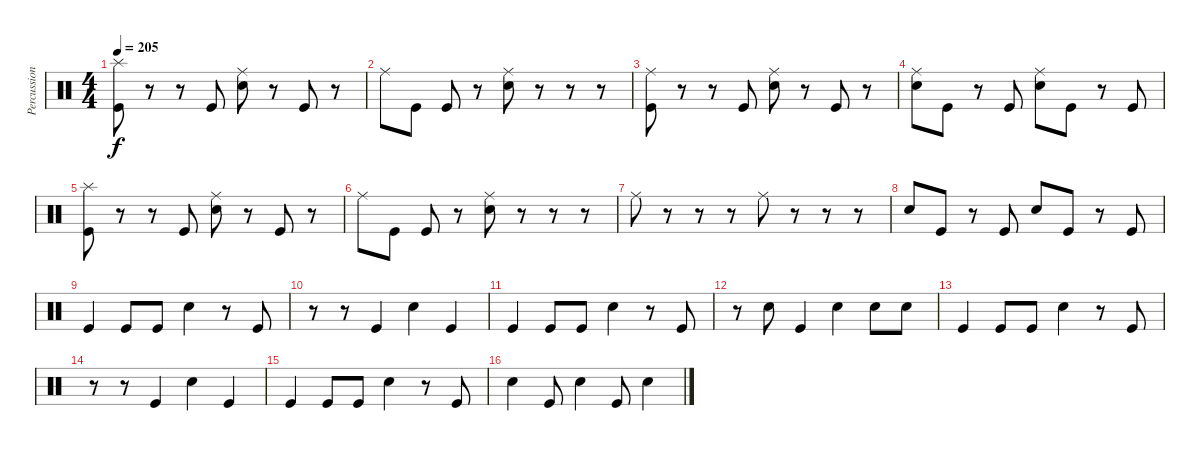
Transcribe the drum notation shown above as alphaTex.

\track ("Percussion" "Percussion") {instrument percussion}
\staff {score}
\articulation defaults
\ts (4 4)
\tempo 205
\clef neutral
\ks c
("Kick (hit)" "Splash (hit)").8{dy f} r.8 r.8 "Kick (hit)".8 ("Snare (hit) 2" "Ride (middle)").8 r.8 "Kick (hit)".8 r.8 |
"Ride (middle)".8 "Kick (hit)".8 "Kick (hit)".8 r.8 ("Snare (hit) 2" "Ride (middle)").8 r.8 r.8 r.8 |
("Kick (hit)" "Ride (middle)").8 r.8 r.8 "Kick (hit)".8 ("Snare (hit) 2" "Ride (middle)").8 r.8 "Kick (hit)".8 r.8 |
("Snare (hit) 2" "Ride (middle)").8 "Kick (hit)".8 r.8 "Kick (hit)".8 ("Snare (hit) 2" "Ride (middle)").8 "Kick (hit)".8 r.8 "Kick (hit)".8 |
("Kick (hit)" "Splash (hit)").8 r.8 r.8 "Kick (hit)".8 ("Snare (hit) 2" "Ride (middle)").8 r.8 "Kick (hit)".8 r.8 |
"Ride (middle)".8 "Kick (hit)".8 "Kick (hit)".8 r.8 ("Snare (hit) 2" "Ride (middle)").8 r.8 r.8 r.8 |
"Ride (middle)".8 r.8 r.8 r.8 "Ride (middle)".8 r.8 r.8 r.8 |
"Snare (hit) 2".8 "Kick (hit)".8 r.8 "Kick (hit)".8 "Snare (hit) 2".8 "Kick (hit)".8 r.8 "Kick (hit)".8 |
"Kick (hit)".4 "Kick (hit)".8 "Kick (hit)".8 "Snare (hit) 2".4 r.8 "Kick (hit)".8 |
r.8 r.8 "Kick (hit)".4 "Snare (hit) 2".4 "Kick (hit)".4 |
"Kick (hit)".4 "Kick (hit)".8 "Kick (hit)".8 "Snare (hit) 2".4 r.8 "Kick (hit)".8 |
r.8 "Snare (hit) 2".8 "Kick (hit)".4 "Snare (hit) 2".4 "Snare (hit) 2".8 "Snare (hit) 2".8 |
"Kick (hit)".4 "Kick (hit)".8 "Kick (hit)".8 "Snare (hit) 2".4 r.8 "Kick (hit)".8 |
r.8 r.8 "Kick (hit)".4 "Snare (hit) 2".4 "Kick (hit)".4 |
"Kick (hit)".4 "Kick (hit)".8 "Kick (hit)".8 "Snare (hit) 2".4 r.8 "Kick (hit)".8 |
"Snare (hit) 2".4 "Kick (hit)".8 "Snare (hit) 2".4 "Kick (hit)".8 "Snare (hit) 2".4
